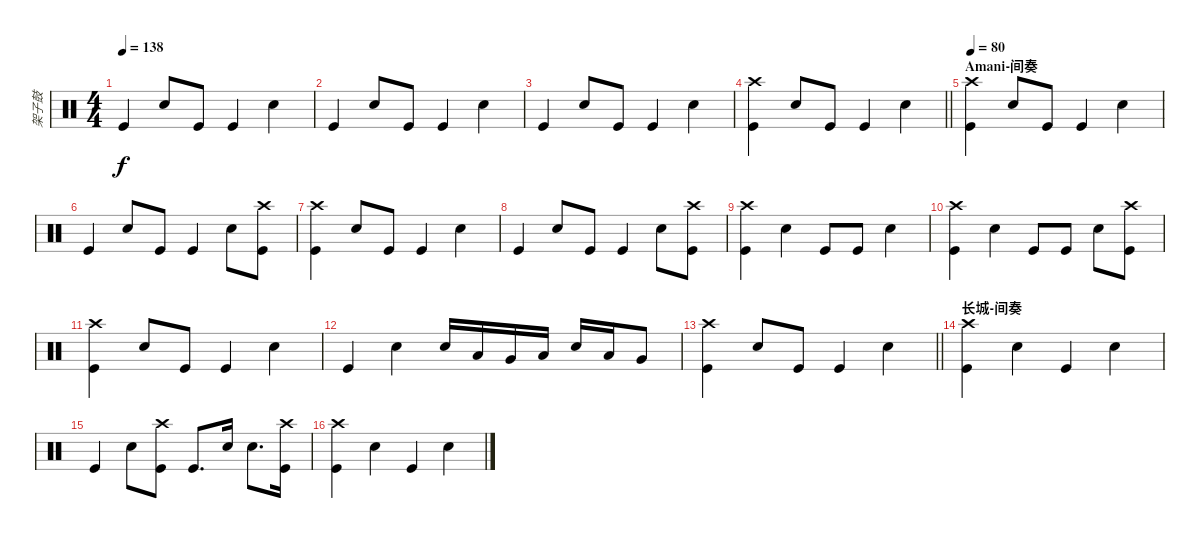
\track ("架子鼓" "架子鼓") {instrument percussion}
\staff {score}
\articulation defaults
\ts (4 4)
\tempo 138
\clef neutral
\ks c "Kick (hit)".4{dy f} "Electric Snare (hit)".8 "Kick (hit)".8 "Kick (hit)".4 "Electric Snare (hit)".4
|
"Kick (hit)".4 "Electric Snare (hit)".8 "Kick (hit)".8 "Kick (hit)".4 "Electric Snare (hit)".4 |
"Kick (hit)".4 "Electric Snare (hit)".8 "Kick (hit)".8 "Kick (hit)".4 "Electric Snare (hit)".4 |
\barLineRight lightlight
("Crash high (hit)" "Kick (hit)").4 "Electric Snare (hit)".8 "Kick (hit)".8 "Kick (hit)".4 "Electric Snare (hit)".4 |
\section ("" "Amani-间奏")
\tempo 80
("Crash high (hit)" "Kick (hit)").4 "Electric Snare (hit)".8 "Kick (hit)".8 "Kick (hit)".4 "Electric Snare (hit)".4 |
"Kick (hit)".4 "Electric Snare (hit)".8 "Kick (hit)".8 "Kick (hit)".4 "Electric Snare (hit)".8 ("Crash high (hit)" "Kick (hit)").8 |
("Crash high (hit)" "Kick (hit)").4 "Electric Snare (hit)".8 "Kick (hit)".8 "Kick (hit)".4 "Electric Snare (hit)".4 |
"Kick (hit)".4 "Electric Snare (hit)".8 "Kick (hit)".8 "Kick (hit)".4 "Electric Snare (hit)".8 ("Crash high (hit)" "Kick (hit)").8 |
("Crash high (hit)" "Kick (hit)").4 "Electric Snare (hit)".4 "Kick (hit)".8 "Kick (hit)".8 "Electric Snare (hit)".4 |
("Crash high (hit)" "Kick (hit)").4 "Electric Snare (hit)".4 "Kick (hit)".8 "Kick (hit)".8 "Electric Snare (hit)".8 ("Crash high (hit)" "Kick (hit)").8 |
("Crash high (hit)" "Kick (hit)").4 "Electric Snare (hit)".8 "Kick (hit)".8 "Kick (hit)".4 "Electric Snare (hit)".4 |
"Kick (hit)".4 "Electric Snare (hit)".4 "Electric Snare (hit)".16 "Low Tom (hit)".16 "Very Low Tom (hit)".16 "Low Floor Tom (hit)".16 "Electric Snare (hit)".16 "Low Tom (hit)".16 "Very Low Tom (hit)".8 |
\barLineRight lightlight
("Crash high (hit)" "Kick (hit)").4 "Electric Snare (hit)".8 "Kick (hit)".8 "Kick (hit)".4 "Electric Snare (hit)".4 |
\section ("" "长城-间奏")
("Crash high (hit)" "Kick (hit)").4 "Electric Snare (hit)".4 "Kick (hit)".4 "Electric Snare (hit)".4 |
"Kick (hit)".4 "Electric Snare (hit)".8 ("Crash high (hit)" "Kick (hit)").8 "Kick (hit)".8{d} "Electric Snare (hit)".16 "Electric Snare (hit)".8{d} ("Crash high (hit)" "Kick (hit)").16 |
("Crash high (hit)" "Kick (hit)").4 "Electric Snare (hit)".4 "Kick (hit)".4 "Electric Snare (hit)".4
